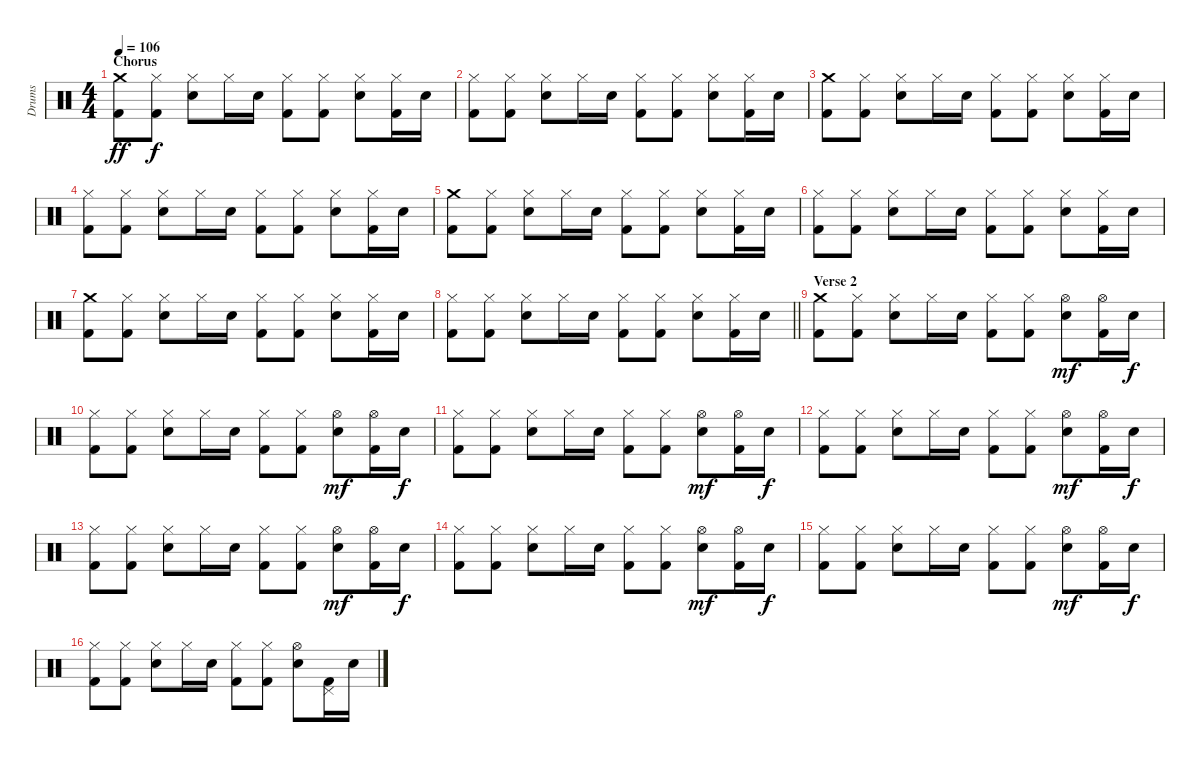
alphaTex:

\track ("Drums" "Drums") {instrument percussion}
\staff {score}
\articulation defaults
\ts (4 4)
\section ("" "Chorus ")
\tempo 106
\clef neutral
\ks c
("Crash medium (hit)" "Kick (hit) 2").8{dy ff} ("Hi-Hat (closed)" "Kick (hit) 2").8{dy f} ("Hi-Hat (closed)" "Electric Snare (hit)").8 "Hi-Hat (closed)".16 "Electric Snare (hit)".16 ("Hi-Hat (closed)" "Kick (hit) 2").8 ("Hi-Hat (closed)" "Kick (hit) 2").8 ("Hi-Hat (closed)" "Electric Snare (hit)").8 ("Hi-Hat (closed)" "Kick (hit) 2").16 "Electric Snare (hit)".16 |
("Hi-Hat (closed)" "Kick (hit) 2").8 ("Hi-Hat (closed)" "Kick (hit) 2").8 ("Hi-Hat (closed)" "Electric Snare (hit)").8 "Hi-Hat (closed)".16 "Electric Snare (hit)".16 ("Hi-Hat (closed)" "Kick (hit) 2").8 ("Hi-Hat (closed)" "Kick (hit) 2").8 ("Hi-Hat (closed)" "Electric Snare (hit)").8 ("Hi-Hat (closed)" "Kick (hit) 2").16 "Electric Snare (hit)".16 |
("Crash medium (hit)" "Kick (hit) 2").8 ("Hi-Hat (closed)" "Kick (hit) 2").8 ("Hi-Hat (closed)" "Electric Snare (hit)").8 "Hi-Hat (closed)".16 "Electric Snare (hit)".16 ("Hi-Hat (closed)" "Kick (hit) 2").8 ("Hi-Hat (closed)" "Kick (hit) 2").8 ("Hi-Hat (closed)" "Electric Snare (hit)").8 ("Hi-Hat (closed)" "Kick (hit) 2").16 "Electric Snare (hit)".16 |
("Hi-Hat (closed)" "Kick (hit) 2").8 ("Hi-Hat (closed)" "Kick (hit) 2").8 ("Hi-Hat (closed)" "Electric Snare (hit)").8 "Hi-Hat (closed)".16 "Electric Snare (hit)".16 ("Hi-Hat (closed)" "Kick (hit) 2").8 ("Hi-Hat (closed)" "Kick (hit) 2").8 ("Hi-Hat (closed)" "Electric Snare (hit)").8 ("Hi-Hat (closed)" "Kick (hit) 2").16 "Electric Snare (hit)".16 |
("Crash medium (hit)" "Kick (hit) 2").8 ("Hi-Hat (closed)" "Kick (hit) 2").8 ("Hi-Hat (closed)" "Electric Snare (hit)").8 "Hi-Hat (closed)".16 "Electric Snare (hit)".16 ("Hi-Hat (closed)" "Kick (hit) 2").8 ("Hi-Hat (closed)" "Kick (hit) 2").8 ("Hi-Hat (closed)" "Electric Snare (hit)").8 ("Hi-Hat (closed)" "Kick (hit) 2").16 "Electric Snare (hit)".16 |
("Hi-Hat (closed)" "Kick (hit) 2").8 ("Hi-Hat (closed)" "Kick (hit) 2").8 ("Hi-Hat (closed)" "Electric Snare (hit)").8 "Hi-Hat (closed)".16 "Electric Snare (hit)".16 ("Hi-Hat (closed)" "Kick (hit) 2").8 ("Hi-Hat (closed)" "Kick (hit) 2").8 ("Hi-Hat (closed)" "Electric Snare (hit)").8 ("Hi-Hat (closed)" "Kick (hit) 2").16 "Electric Snare (hit)".16 |
("Crash medium (hit)" "Kick (hit) 2").8 ("Hi-Hat (closed)" "Kick (hit) 2").8 ("Hi-Hat (closed)" "Electric Snare (hit)").8 "Hi-Hat (closed)".16 "Electric Snare (hit)".16 ("Hi-Hat (closed)" "Kick (hit) 2").8 ("Hi-Hat (closed)" "Kick (hit) 2").8 ("Hi-Hat (closed)" "Electric Snare (hit)").8 ("Hi-Hat (closed)" "Kick (hit) 2").16 "Electric Snare (hit)".16 |
\barLineRight lightlight
("Hi-Hat (closed)" "Kick (hit) 2").8 ("Hi-Hat (closed)" "Kick (hit) 2").8 ("Hi-Hat (closed)" "Electric Snare (hit)").8 "Hi-Hat (closed)".16 "Electric Snare (hit)".16 ("Hi-Hat (closed)" "Kick (hit) 2").8 ("Hi-Hat (closed)" "Kick (hit) 2").8 ("Hi-Hat (closed)" "Electric Snare (hit)").8 ("Hi-Hat (closed)" "Kick (hit) 2").16 "Electric Snare (hit)".16 |
\section ("" "Verse 2")
("Crash medium (hit)" "Kick (hit) 2").8 ("Hi-Hat (closed)" "Kick (hit) 2").8 ("Hi-Hat (closed)" "Electric Snare (hit)").8 "Hi-Hat (closed)".16 "Electric Snare (hit)".16 ("Hi-Hat (closed)" "Kick (hit) 2").8 ("Hi-Hat (closed)" "Kick (hit) 2").8 ("Hi-Hat (open)" "Electric Snare (hit)").8{dy mf} ("Hi-Hat (open)" "Kick (hit) 2").16 "Electric Snare (hit)".16{dy f} |
("Hi-Hat (closed)" "Kick (hit) 2").8 ("Hi-Hat (closed)" "Kick (hit) 2").8 ("Hi-Hat (closed)" "Electric Snare (hit)").8 "Hi-Hat (closed)".16 "Electric Snare (hit)".16 ("Hi-Hat (closed)" "Kick (hit) 2").8 ("Hi-Hat (closed)" "Kick (hit) 2").8 ("Hi-Hat (open)" "Electric Snare (hit)").8{dy mf} ("Hi-Hat (open)" "Kick (hit) 2").16 "Electric Snare (hit)".16{dy f} |
("Hi-Hat (closed)" "Kick (hit) 2").8 ("Hi-Hat (closed)" "Kick (hit) 2").8 ("Hi-Hat (closed)" "Electric Snare (hit)").8 "Hi-Hat (closed)".16 "Electric Snare (hit)".16 ("Hi-Hat (closed)" "Kick (hit) 2").8 ("Hi-Hat (closed)" "Kick (hit) 2").8 ("Hi-Hat (open)" "Electric Snare (hit)").8{dy mf} ("Hi-Hat (open)" "Kick (hit) 2").16 "Electric Snare (hit)".16{dy f} |
("Hi-Hat (closed)" "Kick (hit) 2").8 ("Hi-Hat (closed)" "Kick (hit) 2").8 ("Hi-Hat (closed)" "Electric Snare (hit)").8 "Hi-Hat (closed)".16 "Electric Snare (hit)".16 ("Hi-Hat (closed)" "Kick (hit) 2").8 ("Hi-Hat (closed)" "Kick (hit) 2").8 ("Hi-Hat (open)" "Electric Snare (hit)").8{dy mf} ("Hi-Hat (open)" "Kick (hit) 2").16 "Electric Snare (hit)".16{dy f} |
("Hi-Hat (closed)" "Kick (hit) 2").8 ("Hi-Hat (closed)" "Kick (hit) 2").8 ("Hi-Hat (closed)" "Electric Snare (hit)").8 "Hi-Hat (closed)".16 "Electric Snare (hit)".16 ("Hi-Hat (closed)" "Kick (hit) 2").8 ("Hi-Hat (closed)" "Kick (hit) 2").8 ("Hi-Hat (open)" "Electric Snare (hit)").8{dy mf} ("Hi-Hat (open)" "Kick (hit) 2").16 "Electric Snare (hit)".16{dy f} |
("Hi-Hat (closed)" "Kick (hit) 2").8 ("Hi-Hat (closed)" "Kick (hit) 2").8 ("Hi-Hat (closed)" "Electric Snare (hit)").8 "Hi-Hat (closed)".16 "Electric Snare (hit)".16 ("Hi-Hat (closed)" "Kick (hit) 2").8 ("Hi-Hat (closed)" "Kick (hit) 2").8 ("Hi-Hat (open)" "Electric Snare (hit)").8{dy mf} ("Hi-Hat (open)" "Kick (hit) 2").16 "Electric Snare (hit)".16{dy f} |
("Hi-Hat (closed)" "Kick (hit) 2").8 ("Hi-Hat (closed)" "Kick (hit) 2").8 ("Hi-Hat (closed)" "Electric Snare (hit)").8 "Hi-Hat (closed)".16 "Electric Snare (hit)".16 ("Hi-Hat (closed)" "Kick (hit) 2").8 ("Hi-Hat (closed)" "Kick (hit) 2").8 ("Hi-Hat (open)" "Electric Snare (hit)").8{dy mf} ("Hi-Hat (open)" "Kick (hit) 2").16 "Electric Snare (hit)".16{dy f} |
("Hi-Hat (closed)" "Kick (hit) 2").8 ("Hi-Hat (closed)" "Kick (hit) 2").8 ("Hi-Hat (closed)" "Electric Snare (hit)").8 "Hi-Hat (closed)".16 "Electric Snare (hit)".16 ("Hi-Hat (closed)" "Kick (hit) 2").8 ("Hi-Hat (closed)" "Kick (hit) 2").8 ("Hi-Hat (open)" "Electric Snare (hit)").8 ("Pedal Hi-Hat (hit)" "Kick (hit) 2").16 "Electric Snare (hit)".16
